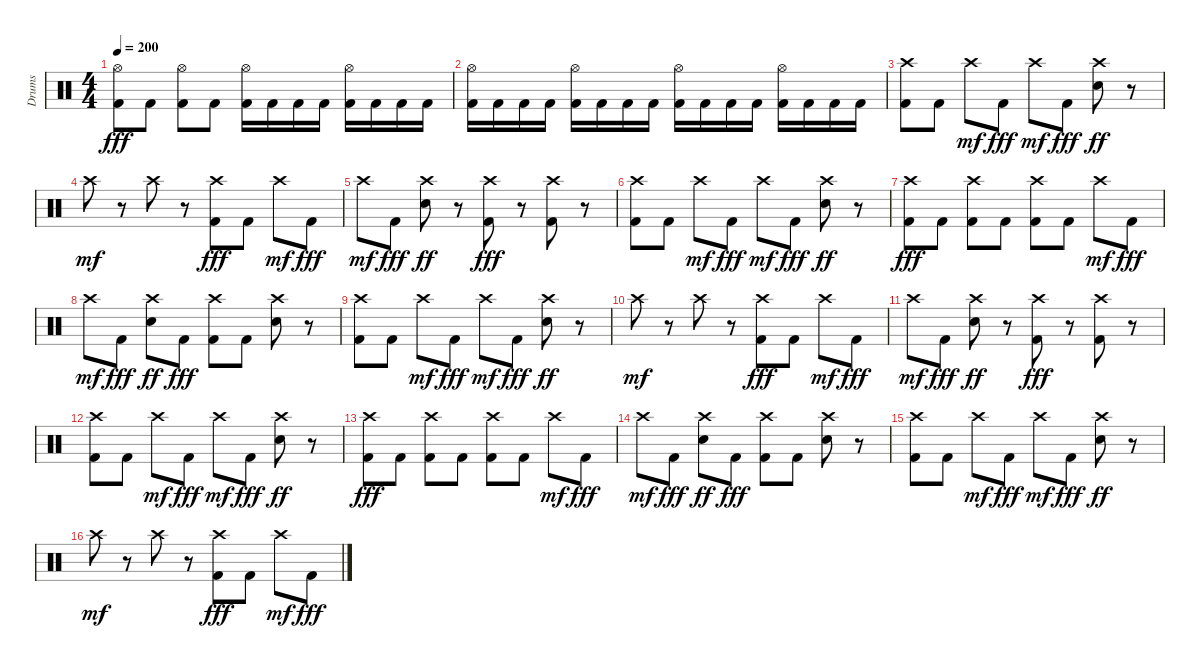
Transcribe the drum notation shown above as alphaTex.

\track ("Drums" "Drums") {instrument percussion}
\staff {score}
\articulation defaults
\ts (4 4)
\tempo 200
\clef neutral
\ks c
("Hi-Hat (open)" "Kick (hit) 2").8{dy fff} "Kick (hit) 2".8 ("Hi-Hat (open)" "Kick (hit) 2").8 "Kick (hit) 2".8 ("Hi-Hat (open)" "Kick (hit) 2").16 "Kick (hit) 2".16 "Kick (hit) 2".16 "Kick (hit) 2".16 ("Hi-Hat (open)" "Kick (hit) 2").16 "Kick (hit) 2".16 "Kick (hit) 2".16 "Kick (hit) 2".16 |
("Hi-Hat (open)" "Kick (hit) 2").16 "Kick (hit) 2".16 "Kick (hit) 2".16 "Kick (hit) 2".16 ("Hi-Hat (open)" "Kick (hit) 2").16 "Kick (hit) 2".16 "Kick (hit) 2".16 "Kick (hit) 2".16 ("Hi-Hat (open)" "Kick (hit) 2").16 "Kick (hit) 2".16 "Kick (hit) 2".16 "Kick (hit) 2".16 ("Hi-Hat (open)" "Kick (hit) 2").16 "Kick (hit) 2".16 "Kick (hit) 2".16 "Kick (hit) 2".16 |
("Crash high (hit)" "Kick (hit) 2").8 "Kick (hit) 2".8 "Crash high (hit)".8{dy mf} "Kick (hit) 2".8{dy fff} "Crash high (hit)".8{dy mf} "Kick (hit) 2".8{dy fff} ("Crash high (hit)" "Electric Snare (hit)").8{dy ff} r.8 |
"Crash high (hit)".8{dy mf} r.8 "Crash high (hit)".8 r.8 ("Crash high (hit)" "Kick (hit) 2").8{dy fff} "Kick (hit) 2".8 "Crash high (hit)".8{dy mf} "Kick (hit) 2".8{dy fff} |
"Crash high (hit)".8{dy mf} "Kick (hit) 2".8{dy fff} ("Crash high (hit)" "Electric Snare (hit)").8{dy ff} r.8 ("Crash high (hit)" "Kick (hit) 2").8{dy fff} r.8 ("Crash high (hit)" "Kick (hit) 2").8 r.8 |
("Crash high (hit)" "Kick (hit) 2").8 "Kick (hit) 2".8 "Crash high (hit)".8{dy mf} "Kick (hit) 2".8{dy fff} "Crash high (hit)".8{dy mf} "Kick (hit) 2".8{dy fff} ("Crash high (hit)" "Electric Snare (hit)").8{dy ff} r.8 |
("Crash high (hit)" "Kick (hit) 2").8{dy fff} "Kick (hit) 2".8 ("Crash high (hit)" "Kick (hit) 2").8 "Kick (hit) 2".8 ("Crash high (hit)" "Kick (hit) 2").8 "Kick (hit) 2".8 "Crash high (hit)".8{dy mf} "Kick (hit) 2".8{dy fff} |
"Crash high (hit)".8{dy mf} "Kick (hit) 2".8{dy fff} ("Crash high (hit)" "Electric Snare (hit)").8{dy ff} "Kick (hit) 2".8{dy fff} ("Crash high (hit)" "Kick (hit) 2").8 "Kick (hit) 2".8 ("Crash high (hit)" "Electric Snare (hit)").8 r.8 |
("Crash high (hit)" "Kick (hit) 2").8 "Kick (hit) 2".8 "Crash high (hit)".8{dy mf} "Kick (hit) 2".8{dy fff} "Crash high (hit)".8{dy mf} "Kick (hit) 2".8{dy fff} ("Crash high (hit)" "Electric Snare (hit)").8{dy ff} r.8 |
"Crash high (hit)".8{dy mf} r.8 "Crash high (hit)".8 r.8 ("Crash high (hit)" "Kick (hit) 2").8{dy fff} "Kick (hit) 2".8 "Crash high (hit)".8{dy mf} "Kick (hit) 2".8{dy fff} |
"Crash high (hit)".8{dy mf} "Kick (hit) 2".8{dy fff} ("Crash high (hit)" "Electric Snare (hit)").8{dy ff} r.8 ("Crash high (hit)" "Kick (hit) 2").8{dy fff} r.8 ("Crash high (hit)" "Kick (hit) 2").8 r.8 |
("Crash high (hit)" "Kick (hit) 2").8 "Kick (hit) 2".8 "Crash high (hit)".8{dy mf} "Kick (hit) 2".8{dy fff} "Crash high (hit)".8{dy mf} "Kick (hit) 2".8{dy fff} ("Crash high (hit)" "Electric Snare (hit)").8{dy ff} r.8 |
("Crash high (hit)" "Kick (hit) 2").8{dy fff} "Kick (hit) 2".8 ("Crash high (hit)" "Kick (hit) 2").8 "Kick (hit) 2".8 ("Crash high (hit)" "Kick (hit) 2").8 "Kick (hit) 2".8 "Crash high (hit)".8{dy mf} "Kick (hit) 2".8{dy fff} |
"Crash high (hit)".8{dy mf} "Kick (hit) 2".8{dy fff} ("Crash high (hit)" "Electric Snare (hit)").8{dy ff} "Kick (hit) 2".8{dy fff} ("Crash high (hit)" "Kick (hit) 2").8 "Kick (hit) 2".8 ("Crash high (hit)" "Electric Snare (hit)").8 r.8 |
("Crash high (hit)" "Kick (hit) 2").8 "Kick (hit) 2".8 "Crash high (hit)".8{dy mf} "Kick (hit) 2".8{dy fff} "Crash high (hit)".8{dy mf} "Kick (hit) 2".8{dy fff} ("Crash high (hit)" "Electric Snare (hit)").8{dy ff} r.8 |
"Crash high (hit)".8{dy mf} r.8 "Crash high (hit)".8 r.8 ("Crash high (hit)" "Kick (hit) 2").8{dy fff} "Kick (hit) 2".8 "Crash high (hit)".8{dy mf} "Kick (hit) 2".8{dy fff}
